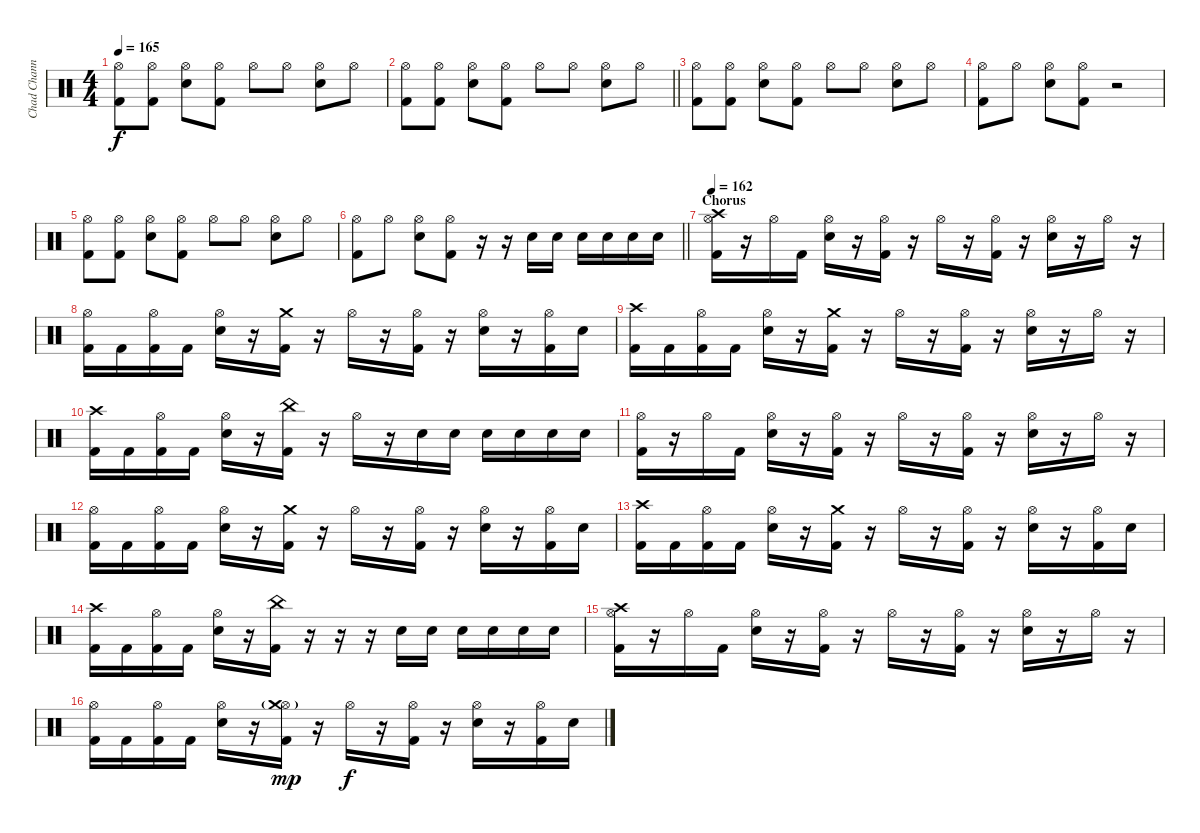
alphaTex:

\track ("Chad Channing" "Chad Chann") {instrument percussion}
\staff {score}
\articulation defaults
\ts (4 4)
\tempo 165
\clef neutral
\ks c
("Hi-Hat (open)" "Kick (hit) 2").8{dy f} ("Hi-Hat (open)" "Kick (hit) 2").8 ("Hi-Hat (open)" "Snare (hit) 2").8 ("Hi-Hat (open)" "Kick (hit) 2").8 "Hi-Hat (open)".8 "Hi-Hat (open)".8 ("Hi-Hat (open)" "Snare (hit) 2").8 "Hi-Hat (open)".8 |
\barLineRight lightlight
("Hi-Hat (open)" "Kick (hit) 2").8 ("Hi-Hat (open)" "Kick (hit) 2").8 ("Hi-Hat (open)" "Snare (hit) 2").8 ("Hi-Hat (open)" "Kick (hit) 2").8 "Hi-Hat (open)".8 "Hi-Hat (open)".8 ("Hi-Hat (open)" "Snare (hit) 2").8 "Hi-Hat (open)".8 |
("Hi-Hat (open)" "Kick (hit) 2").8 ("Hi-Hat (open)" "Kick (hit) 2").8 ("Hi-Hat (open)" "Snare (hit) 2").8 ("Hi-Hat (open)" "Kick (hit) 2").8 "Hi-Hat (open)".8 "Hi-Hat (open)".8 ("Hi-Hat (open)" "Snare (hit) 2").8 "Hi-Hat (open)".8 |
("Hi-Hat (open)" "Kick (hit) 2").8 "Hi-Hat (open)".8 ("Hi-Hat (open)" "Snare (hit) 2").8 ("Hi-Hat (open)" "Kick (hit) 2").8 r.2 |
("Hi-Hat (open)" "Kick (hit) 2").8 ("Hi-Hat (open)" "Kick (hit) 2").8 ("Hi-Hat (open)" "Snare (hit) 2").8 ("Hi-Hat (open)" "Kick (hit) 2").8 "Hi-Hat (open)".8 "Hi-Hat (open)".8 ("Hi-Hat (open)" "Snare (hit) 2").8 "Hi-Hat (open)".8 |
\barLineRight lightlight
("Hi-Hat (open)" "Kick (hit) 2").8 "Hi-Hat (open)".8 ("Hi-Hat (open)" "Snare (hit) 2").8 ("Hi-Hat (open)" "Kick (hit) 2").8 r.16 r.16 "Snare (hit) 2".16 "Snare (hit) 2".16 "Snare (hit) 2".16 "Snare (hit) 2".16 "Snare (hit) 2".16 "Snare (hit) 2".16 |
\section ("" "Chorus")
\tempo 162
("Crash high (hit)" "Hi-Hat (open)" "Kick (hit) 2").16 r.16 "Hi-Hat (open)".16 "Kick (hit) 2".16 ("Hi-Hat (open)" "Snare (hit) 2").16 r.16 ("Hi-Hat (open)" "Kick (hit) 2").16 r.16 "Hi-Hat (open)".16 r.16 ("Hi-Hat (open)" "Kick (hit) 2").16 r.16 ("Hi-Hat (open)" "Snare (hit) 2").16 r.16 "Hi-Hat (open)".16 r.16 |
("Hi-Hat (open)" "Kick (hit) 2").16 "Kick (hit) 2".16 ("Hi-Hat (open)" "Kick (hit) 2").16 "Kick (hit) 2".16 ("Hi-Hat (open)" "Snare (hit) 2").16 r.16 ("Crash medium (hit)" "Kick (hit) 2").16 r.16 "Hi-Hat (open)".16 r.16 ("Hi-Hat (open)" "Kick (hit) 2").16 r.16 ("Hi-Hat (open)" "Snare (hit) 2").16 r.16 ("Hi-Hat (open)" "Kick (hit) 2").16 "Snare (hit) 2".16 |
("Crash high (hit)" "Kick (hit) 2").16 "Kick (hit) 2".16 ("Hi-Hat (open)" "Kick (hit) 2").16 "Kick (hit) 2".16 ("Hi-Hat (open)" "Snare (hit) 2").16 r.16 ("Crash medium (hit)" "Kick (hit) 2").16 r.16 "Hi-Hat (open)".16 r.16 ("Hi-Hat (open)" "Kick (hit) 2").16 r.16 ("Hi-Hat (open)" "Snare (hit) 2").16 r.16 "Hi-Hat (open)".16 r.16 |
("Crash high (hit)" "Kick (hit) 2").16 "Kick (hit) 2".16 ("Hi-Hat (open)" "Kick (hit) 2").16 "Kick (hit) 2".16 ("Hi-Hat (open)" "Snare (hit) 2").16 r.16 ("China (hit)" "Kick (hit) 2").16 r.16 "Hi-Hat (open)".16 r.16 "Snare (hit) 2".16 "Snare (hit) 2".16 "Snare (hit) 2".16 "Snare (hit) 2".16 "Snare (hit) 2".16 "Snare (hit) 2".16 |
("Hi-Hat (open)" "Kick (hit) 2").16 r.16 "Hi-Hat (open)".16 "Kick (hit) 2".16 ("Hi-Hat (open)" "Snare (hit) 2").16 r.16 ("Hi-Hat (open)" "Kick (hit) 2").16 r.16 "Hi-Hat (open)".16 r.16 ("Hi-Hat (open)" "Kick (hit) 2").16 r.16 ("Hi-Hat (open)" "Snare (hit) 2").16 r.16 "Hi-Hat (open)".16 r.16 |
("Hi-Hat (open)" "Kick (hit) 2").16 "Kick (hit) 2".16 ("Hi-Hat (open)" "Kick (hit) 2").16 "Kick (hit) 2".16 ("Hi-Hat (open)" "Snare (hit) 2").16 r.16 ("Crash medium (hit)" "Kick (hit) 2").16 r.16 "Hi-Hat (open)".16 r.16 ("Hi-Hat (open)" "Kick (hit) 2").16 r.16 ("Hi-Hat (open)" "Snare (hit) 2").16 r.16 ("Hi-Hat (open)" "Kick (hit) 2").16 "Snare (hit) 2".16 |
("Crash high (hit)" "Kick (hit) 2").16 "Kick (hit) 2".16 ("Hi-Hat (open)" "Kick (hit) 2").16 "Kick (hit) 2".16 ("Hi-Hat (open)" "Snare (hit) 2").16 r.16 ("Crash medium (hit)" "Kick (hit) 2").16 r.16 "Hi-Hat (open)".16 r.16 ("Hi-Hat (open)" "Kick (hit) 2").16 r.16 ("Hi-Hat (open)" "Snare (hit) 2").16 r.16 ("Hi-Hat (open)" "Kick (hit) 2").16 "Snare (hit) 2".16 |
("Crash high (hit)" "Kick (hit) 2").16 "Kick (hit) 2".16 ("Hi-Hat (open)" "Kick (hit) 2").16 "Kick (hit) 2".16 ("Hi-Hat (open)" "Snare (hit) 2").16 r.16 ("China (hit)" "Kick (hit) 2").16 r.16 r.16 r.16 "Snare (hit) 2".16 "Snare (hit) 2".16 "Snare (hit) 2".16 "Snare (hit) 2".16 "Snare (hit) 2".16 "Snare (hit) 2".16 |
("Crash high (hit)" "Hi-Hat (open)" "Kick (hit) 2").16 r.16 "Hi-Hat (open)".16 "Kick (hit) 2".16 ("Hi-Hat (open)" "Snare (hit) 2").16 r.16 ("Hi-Hat (open)" "Kick (hit) 2").16 r.16 "Hi-Hat (open)".16 r.16 ("Hi-Hat (open)" "Kick (hit) 2").16 r.16 ("Hi-Hat (open)" "Snare (hit) 2").16 r.16 "Hi-Hat (open)".16 r.16 |
("Hi-Hat (open)" "Kick (hit) 2").16 "Kick (hit) 2".16 ("Hi-Hat (open)" "Kick (hit) 2").16 "Kick (hit) 2".16 ("Hi-Hat (open)" "Snare (hit) 2").16 r.16 ("Hi-Hat (open)" "Crash medium (hit)"{g} "Kick (hit) 2").16{dy mp} r.16 "Hi-Hat (open)".16{dy f} r.16 ("Hi-Hat (open)" "Kick (hit) 2").16 r.16 ("Hi-Hat (open)" "Snare (hit) 2").16 r.16 ("Hi-Hat (open)" "Kick (hit) 2").16 "Snare (hit) 2".16
